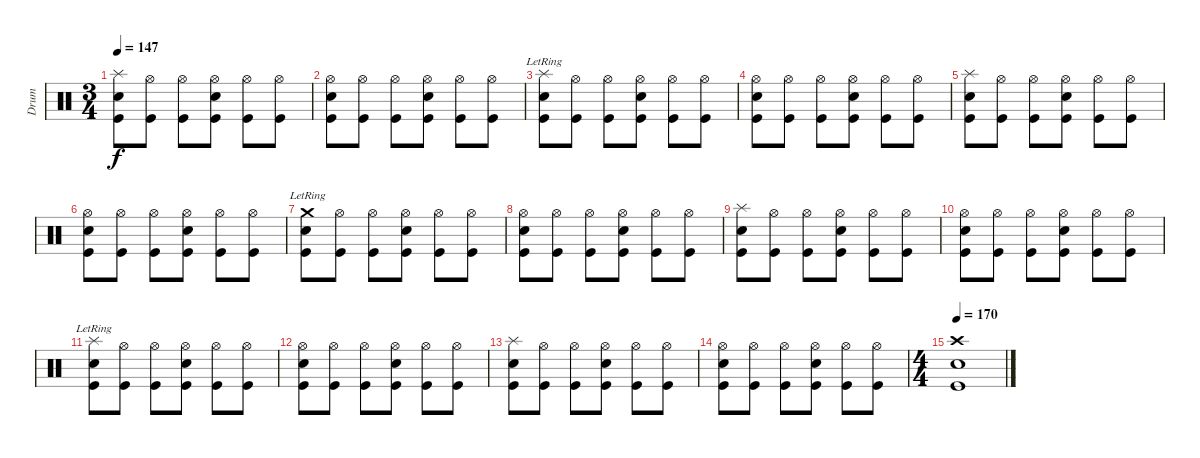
\track ("Drum" "Drum") {instrument percussion}
\staff {score}
\articulation defaults
\ts (3 4)
\tempo 147
\clef neutral
\ks c
("Splash (hit)" "Snare (hit) 2" "Kick (hit)").8{dy f} ("Hi-Hat (open)" "Kick (hit)").8 ("Hi-Hat (open)" "Kick (hit)").8 ("Hi-Hat (open)" "Snare (hit) 2" "Kick (hit)").8 ("Hi-Hat (open)" "Kick (hit)").8 ("Hi-Hat (open)" "Kick (hit)").8 |
("Hi-Hat (open)" "Snare (hit) 2" "Kick (hit)").8 ("Hi-Hat (open)" "Kick (hit)").8 ("Hi-Hat (open)" "Kick (hit)").8 ("Hi-Hat (open)" "Snare (hit) 2" "Kick (hit)").8 ("Hi-Hat (open)" "Kick (hit)").8 ("Hi-Hat (open)" "Kick (hit)").8 |
("Splash (hit)"{lr} "Snare (hit) 2" "Kick (hit)").8 ("Hi-Hat (open)" "Kick (hit)").8 ("Hi-Hat (open)" "Kick (hit)").8 ("Hi-Hat (open)" "Snare (hit) 2" "Kick (hit)").8 ("Hi-Hat (open)" "Kick (hit)").8 ("Hi-Hat (open)" "Kick (hit)").8 |
("Hi-Hat (open)" "Snare (hit) 2" "Kick (hit)").8 ("Hi-Hat (open)" "Kick (hit)").8 ("Hi-Hat (open)" "Kick (hit)").8 ("Hi-Hat (open)" "Snare (hit) 2" "Kick (hit)").8 ("Hi-Hat (open)" "Kick (hit)").8 ("Hi-Hat (open)" "Kick (hit)").8 |
("Splash (hit)" "Snare (hit) 2" "Kick (hit)").8 ("Hi-Hat (open)" "Kick (hit)").8 ("Hi-Hat (open)" "Kick (hit)").8 ("Hi-Hat (open)" "Snare (hit) 2" "Kick (hit)").8 ("Hi-Hat (open)" "Kick (hit)").8 ("Hi-Hat (open)" "Kick (hit)").8 |
("Hi-Hat (open)" "Snare (hit) 2" "Kick (hit)").8 ("Hi-Hat (open)" "Kick (hit)").8 ("Hi-Hat (open)" "Kick (hit)").8 ("Hi-Hat (open)" "Snare (hit) 2" "Kick (hit)").8 ("Hi-Hat (open)" "Kick (hit)").8 ("Hi-Hat (open)" "Kick (hit)").8 |
("Crash medium (hit)"{lr} "Snare (hit) 2" "Kick (hit)").8 ("Hi-Hat (open)" "Kick (hit)").8 ("Hi-Hat (open)" "Kick (hit)").8 ("Hi-Hat (open)" "Snare (hit) 2" "Kick (hit)").8 ("Hi-Hat (open)" "Kick (hit)").8 ("Hi-Hat (open)" "Kick (hit)").8 |
("Hi-Hat (open)" "Snare (hit) 2" "Kick (hit)").8 ("Hi-Hat (open)" "Kick (hit)").8 ("Hi-Hat (open)" "Kick (hit)").8 ("Hi-Hat (open)" "Snare (hit) 2" "Kick (hit)").8 ("Hi-Hat (open)" "Kick (hit)").8 ("Hi-Hat (open)" "Kick (hit)").8 |
("Splash (hit)" "Snare (hit) 2" "Kick (hit)").8 ("Hi-Hat (open)" "Kick (hit)").8 ("Hi-Hat (open)" "Kick (hit)").8 ("Hi-Hat (open)" "Snare (hit) 2" "Kick (hit)").8 ("Hi-Hat (open)" "Kick (hit)").8 ("Hi-Hat (open)" "Kick (hit)").8 |
("Hi-Hat (open)" "Snare (hit) 2" "Kick (hit)").8 ("Hi-Hat (open)" "Kick (hit)").8 ("Hi-Hat (open)" "Kick (hit)").8 ("Hi-Hat (open)" "Snare (hit) 2" "Kick (hit)").8 ("Hi-Hat (open)" "Kick (hit)").8 ("Hi-Hat (open)" "Kick (hit)").8 |
("Splash (hit)"{lr} "Snare (hit) 2" "Kick (hit)").8 ("Hi-Hat (open)" "Kick (hit)").8 ("Hi-Hat (open)" "Kick (hit)").8 ("Hi-Hat (open)" "Snare (hit) 2" "Kick (hit)").8 ("Hi-Hat (open)" "Kick (hit)").8 ("Hi-Hat (open)" "Kick (hit)").8 |
("Hi-Hat (open)" "Snare (hit) 2" "Kick (hit)").8 ("Hi-Hat (open)" "Kick (hit)").8 ("Hi-Hat (open)" "Kick (hit)").8 ("Hi-Hat (open)" "Snare (hit) 2" "Kick (hit)").8 ("Hi-Hat (open)" "Kick (hit)").8 ("Hi-Hat (open)" "Kick (hit)").8 |
("Splash (hit)" "Snare (hit) 2" "Kick (hit)").8 ("Hi-Hat (open)" "Kick (hit)").8 ("Hi-Hat (open)" "Kick (hit)").8 ("Hi-Hat (open)" "Snare (hit) 2" "Kick (hit)").8 ("Hi-Hat (open)" "Kick (hit)").8 ("Hi-Hat (open)" "Kick (hit)").8 |
("Hi-Hat (open)" "Snare (hit) 2" "Kick (hit)").8 ("Hi-Hat (open)" "Kick (hit)").8 ("Hi-Hat (open)" "Kick (hit)").8 ("Hi-Hat (open)" "Snare (hit) 2" "Kick (hit)").8 ("Hi-Hat (open)" "Kick (hit)").8 ("Hi-Hat (open)" "Kick (hit)").8 |
\ts (4 4)
\tempo 170
("Crash high (hit)" "Snare (hit) 2" "Kick (hit)").1
